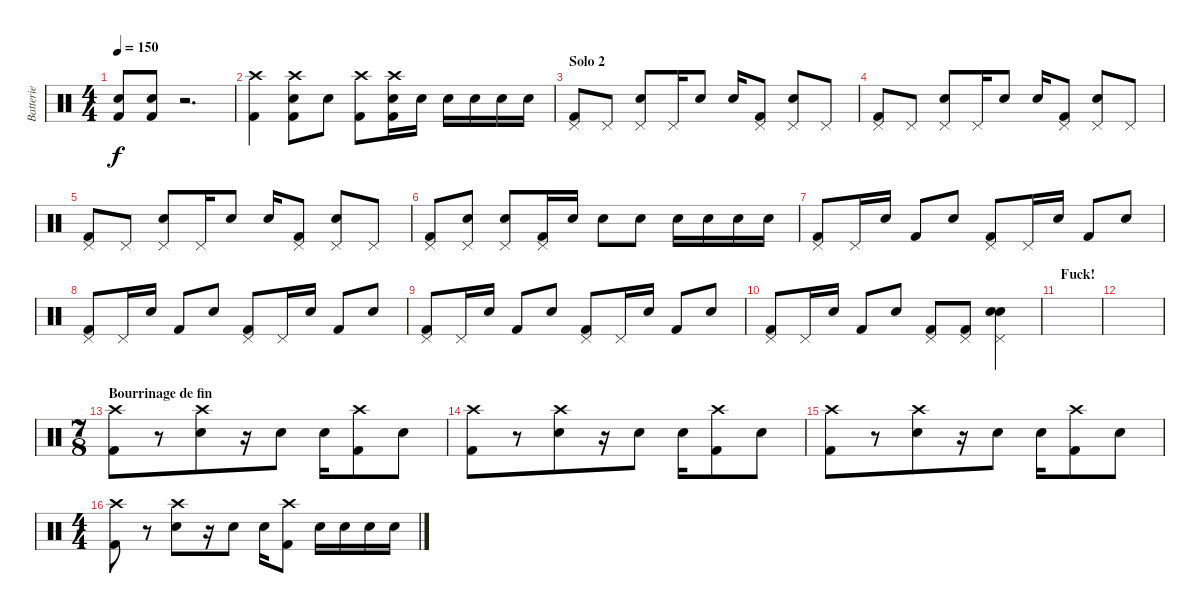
\track ("Batterie" "Batterie") {instrument percussion}
\staff {score}
\articulation defaults
\ts (4 4)
\tempo 150
\clef neutral
\ks c
("Electric Snare (hit)" "Kick (hit) 2").8{dy f} ("Electric Snare (hit)" "Kick (hit) 2").8 r.2{d} |
("Crash high (hit)" "Kick (hit) 2").4 ("Crash high (hit)" "Electric Snare (hit)" "Kick (hit) 2").8 "Electric Snare (hit)".8 ("Crash high (hit)" "Kick (hit) 2").8 ("Crash high (hit)" "Electric Snare (hit)" "Kick (hit) 2").16 "Electric Snare (hit)".16 "Electric Snare (hit)".16 "Electric Snare (hit)".16 "Electric Snare (hit)".16 "Electric Snare (hit)".16 |
\section ("" "Solo 2")
("Pedal Hi-Hat (hit)" "Kick (hit) 2").8 "Pedal Hi-Hat (hit)".8 ("Pedal Hi-Hat (hit)" "Electric Snare (hit)").8 "Pedal Hi-Hat (hit)".16 "Electric Snare (hit)".8 "Electric Snare (hit)".16 ("Pedal Hi-Hat (hit)" "Kick (hit) 2").8 ("Pedal Hi-Hat (hit)" "Electric Snare (hit)").8 "Pedal Hi-Hat (hit)".8 |
("Pedal Hi-Hat (hit)" "Kick (hit) 2").8 "Pedal Hi-Hat (hit)".8 ("Pedal Hi-Hat (hit)" "Electric Snare (hit)").8 "Pedal Hi-Hat (hit)".16 "Electric Snare (hit)".8 "Electric Snare (hit)".16 ("Pedal Hi-Hat (hit)" "Kick (hit) 2").8 ("Pedal Hi-Hat (hit)" "Electric Snare (hit)").8 "Pedal Hi-Hat (hit)".8 |
("Pedal Hi-Hat (hit)" "Kick (hit) 2").8 "Pedal Hi-Hat (hit)".8 ("Pedal Hi-Hat (hit)" "Electric Snare (hit)").8 "Pedal Hi-Hat (hit)".16 "Electric Snare (hit)".8 "Electric Snare (hit)".16 ("Pedal Hi-Hat (hit)" "Kick (hit) 2").8 ("Pedal Hi-Hat (hit)" "Electric Snare (hit)").8 "Pedal Hi-Hat (hit)".8 |
("Pedal Hi-Hat (hit)" "Kick (hit) 2").8 ("Pedal Hi-Hat (hit)" "Electric Snare (hit)").8 ("Pedal Hi-Hat (hit)" "Electric Snare (hit)").8 ("Pedal Hi-Hat (hit)" "Kick (hit) 2").16 "Electric Snare (hit)".16 "Electric Snare (hit)".8 "Electric Snare (hit)".8 "Electric Snare (hit)".16 "Electric Snare (hit)".16 "Electric Snare (hit)".16 "Electric Snare (hit)".16 |
("Pedal Hi-Hat (hit)" "Kick (hit) 2").8 "Pedal Hi-Hat (hit)".16 "Snare (hit) 2".16 "Kick (hit) 2".8 "Snare (hit) 2".8 ("Pedal Hi-Hat (hit)" "Kick (hit) 2").8 "Pedal Hi-Hat (hit)".16 "Snare (hit) 2".16 "Kick (hit) 2".8 "Snare (hit) 2".8 |
("Pedal Hi-Hat (hit)" "Kick (hit) 2").8 "Pedal Hi-Hat (hit)".16 "Snare (hit) 2".16 "Kick (hit) 2".8 "Snare (hit) 2".8 ("Pedal Hi-Hat (hit)" "Kick (hit) 2").8 "Pedal Hi-Hat (hit)".16 "Snare (hit) 2".16 "Kick (hit) 2".8 "Snare (hit) 2".8 |
("Pedal Hi-Hat (hit)" "Kick (hit) 2").8 "Pedal Hi-Hat (hit)".16 "Snare (hit) 2".16 "Kick (hit) 2".8 "Snare (hit) 2".8 ("Pedal Hi-Hat (hit)" "Kick (hit) 2").8 "Pedal Hi-Hat (hit)".16 "Snare (hit) 2".16 "Kick (hit) 2".8 "Snare (hit) 2".8 |
("Pedal Hi-Hat (hit)" "Kick (hit) 2").8 "Pedal Hi-Hat (hit)".16 "Snare (hit) 2".16 "Kick (hit) 2".8 "Snare (hit) 2".8 ("Pedal Hi-Hat (hit)" "Kick (hit) 2").8 ("Pedal Hi-Hat (hit)" "Kick (hit) 2").8 ("Pedal Hi-Hat (hit)" "Snare (hit) 2" "Electric Snare (hit)").4 |
\section ("" "Fuck!")
|
|
\ts (7 8)
\section ("" "Bourrinage de fin")
("Crash high (hit)" "Kick (hit) 2").8 r.8 ("Crash high (hit)" "Electric Snare (hit)").8 r.16 "Electric Snare (hit)".8 "Electric Snare (hit)".16 ("Crash high (hit)" "Kick (hit) 2").8 "Electric Snare (hit)".8 |
("Crash high (hit)" "Kick (hit) 2").8 r.8 ("Crash high (hit)" "Electric Snare (hit)").8 r.16 "Electric Snare (hit)".8 "Electric Snare (hit)".16 ("Crash high (hit)" "Kick (hit) 2").8 "Electric Snare (hit)".8 |
("Crash high (hit)" "Kick (hit) 2").8 r.8 ("Crash high (hit)" "Electric Snare (hit)").8 r.16 "Electric Snare (hit)".8 "Electric Snare (hit)".16 ("Crash high (hit)" "Kick (hit) 2").8 "Electric Snare (hit)".8 |
\ts (4 4)
("Crash high (hit)" "Kick (hit) 2").8 r.8 ("Crash high (hit)" "Electric Snare (hit)").8 r.16 "Electric Snare (hit)".8 "Electric Snare (hit)".16 ("Crash high (hit)" "Kick (hit) 2").8 "Electric Snare (hit)".16 "Electric Snare (hit)".16 "Electric Snare (hit)".16 "Electric Snare (hit)".16
